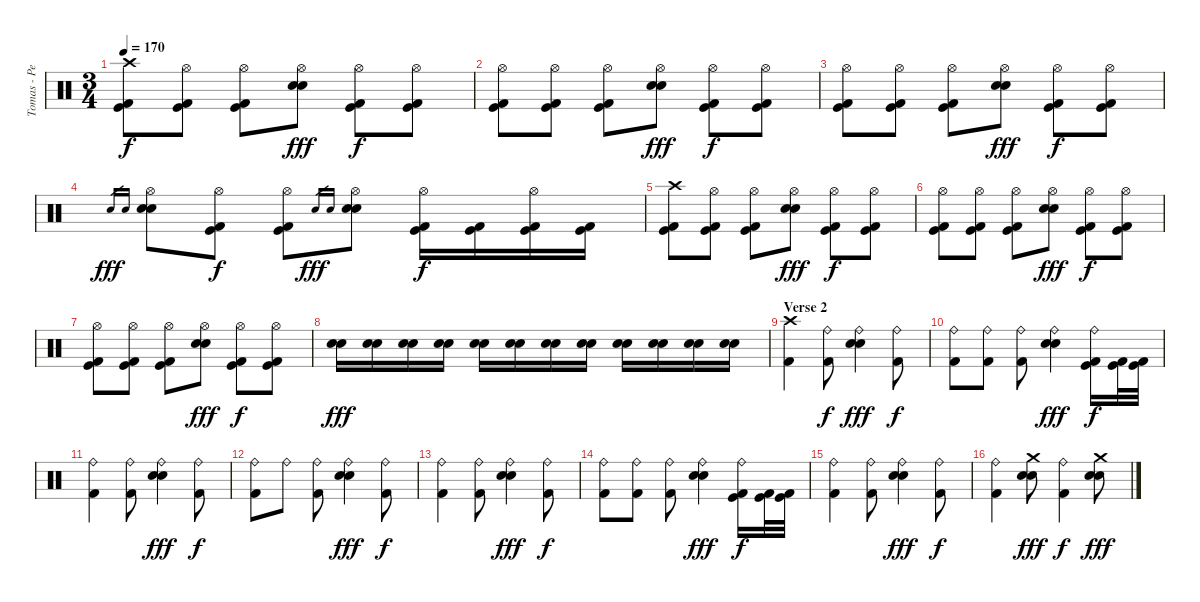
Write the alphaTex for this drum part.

\track ("Tomas - Percussions" "Tomas - Pe") {instrument percussion}
\staff {score}
\articulation defaults
\ts (3 4)
\tempo 170
\clef neutral
\ks c
("Crash high (hit)" "Kick (hit)" "Kick (hit) 2").8{dy f} ("Hi-Hat (open)" "Kick (hit)" "Kick (hit) 2").8 ("Hi-Hat (open)" "Kick (hit)" "Kick (hit) 2").8 ("Hi-Hat (open)" "Electric Snare (hit)" "Electric Snare (hit)").8{dy fff} ("Hi-Hat (open)" "Kick (hit)" "Kick (hit) 2").8{dy f} ("Hi-Hat (open)" "Kick (hit)" "Kick (hit) 2").8 |
("Hi-Hat (open)" "Kick (hit)" "Kick (hit) 2").8 ("Hi-Hat (open)" "Kick (hit)" "Kick (hit) 2").8 ("Hi-Hat (open)" "Kick (hit)" "Kick (hit) 2").8 ("Hi-Hat (open)" "Electric Snare (hit)" "Electric Snare (hit)").8{dy fff} ("Hi-Hat (open)" "Kick (hit)" "Kick (hit) 2").8{dy f} ("Hi-Hat (open)" "Kick (hit)" "Kick (hit) 2").8 |
("Hi-Hat (open)" "Kick (hit)" "Kick (hit) 2").8 ("Hi-Hat (open)" "Kick (hit)" "Kick (hit) 2").8 ("Hi-Hat (open)" "Kick (hit)" "Kick (hit) 2").8 ("Hi-Hat (open)" "Electric Snare (hit)" "Electric Snare (hit)").8{dy fff} ("Hi-Hat (open)" "Kick (hit)" "Kick (hit) 2").8{dy f} ("Hi-Hat (open)" "Kick (hit)" "Kick (hit) 2").8 |
"Electric Snare (hit)".16{gr dy fff} "Electric Snare (hit)".16{gr} ("Hi-Hat (open)" "Electric Snare (hit)" "Electric Snare (hit)").8 ("Hi-Hat (open)" "Kick (hit)" "Kick (hit) 2").8{dy f} ("Hi-Hat (open)" "Kick (hit)" "Kick (hit) 2").8 "Electric Snare (hit)".16{gr dy fff} "Electric Snare (hit)".16{gr} ("Hi-Hat (open)" "Electric Snare (hit)" "Electric Snare (hit)").8 ("Hi-Hat (open)" "Kick (hit)" "Kick (hit) 2").16{dy f} ("Kick (hit)" "Kick (hit) 2").16 ("Hi-Hat (open)" "Kick (hit)" "Kick (hit) 2").16 ("Kick (hit)" "Kick (hit) 2").16 |
("Crash high (hit)" "Kick (hit)" "Kick (hit) 2").8 ("Hi-Hat (open)" "Kick (hit)" "Kick (hit) 2").8 ("Hi-Hat (open)" "Kick (hit)" "Kick (hit) 2").8 ("Hi-Hat (open)" "Electric Snare (hit)" "Electric Snare (hit)").8{dy fff} ("Hi-Hat (open)" "Kick (hit)" "Kick (hit) 2").8{dy f} ("Hi-Hat (open)" "Kick (hit)" "Kick (hit) 2").8 |
("Hi-Hat (open)" "Kick (hit)" "Kick (hit) 2").8 ("Hi-Hat (open)" "Kick (hit)" "Kick (hit) 2").8 ("Hi-Hat (open)" "Kick (hit)" "Kick (hit) 2").8 ("Hi-Hat (open)" "Electric Snare (hit)" "Electric Snare (hit)").8{dy fff} ("Hi-Hat (open)" "Kick (hit)" "Kick (hit) 2").8{dy f} ("Hi-Hat (open)" "Kick (hit)" "Kick (hit) 2").8 |
("Hi-Hat (open)" "Kick (hit)" "Kick (hit) 2").8 ("Hi-Hat (open)" "Kick (hit)" "Kick (hit) 2").8 ("Hi-Hat (open)" "Kick (hit)" "Kick (hit) 2").8 ("Hi-Hat (open)" "Electric Snare (hit)" "Electric Snare (hit)").8{dy fff} ("Hi-Hat (open)" "Kick (hit)" "Kick (hit) 2").8{dy f} ("Hi-Hat (open)" "Kick (hit)" "Kick (hit) 2").8 |
("Electric Snare (hit)" "Electric Snare (hit)").16{dy fff} ("Electric Snare (hit)" "Electric Snare (hit)").16 ("Electric Snare (hit)" "Electric Snare (hit)").16 ("Electric Snare (hit)" "Electric Snare (hit)").16 ("Electric Snare (hit)" "Electric Snare (hit)").16 ("Electric Snare (hit)" "Electric Snare (hit)").16 ("Electric Snare (hit)" "Electric Snare (hit)").16 ("Electric Snare (hit)" "Electric Snare (hit)").16 ("Electric Snare (hit)" "Electric Snare (hit)").16 ("Electric Snare (hit)" "Electric Snare (hit)").16 ("Electric Snare (hit)" "Electric Snare (hit)").16 ("Electric Snare (hit)" "Electric Snare (hit)").16 |
\section ("" "Verse 2")
("Crash high (hit)" "Kick (hit) 2").4 ("Ride (bell)" "Kick (hit) 2").8{dy f} ("Ride (bell)" "Electric Snare (hit)" "Electric Snare (hit)").4{dy fff} ("Ride (bell)" "Kick (hit) 2").8{dy f} |
("Ride (bell)" "Kick (hit) 2").8 ("Ride (bell)" "Kick (hit) 2").8 ("Ride (bell)" "Kick (hit) 2").8 ("Ride (bell)" "Electric Snare (hit)" "Electric Snare (hit)").4{dy fff} ("Ride (bell)" "Kick (hit)" "Kick (hit) 2").16{dy f} ("Kick (hit)" "Kick (hit) 2").32 ("Kick (hit)" "Kick (hit) 2").32 |
("Ride (bell)" "Kick (hit) 2").4 ("Ride (bell)" "Kick (hit) 2").8 ("Ride (bell)" "Electric Snare (hit)" "Electric Snare (hit)").4{dy fff} ("Ride (bell)" "Kick (hit) 2").8{dy f} |
("Ride (bell)" "Kick (hit) 2").8 "Ride (bell)".8 ("Ride (bell)" "Kick (hit) 2").8 ("Ride (bell)" "Electric Snare (hit)" "Electric Snare (hit)").4{dy fff} ("Ride (bell)" "Kick (hit) 2").8{dy f} |
("Ride (bell)" "Kick (hit) 2").4 ("Ride (bell)" "Kick (hit) 2").8 ("Ride (bell)" "Electric Snare (hit)" "Electric Snare (hit)").4{dy fff} ("Ride (bell)" "Kick (hit) 2").8{dy f} |
("Ride (bell)" "Kick (hit) 2").8 ("Ride (bell)" "Kick (hit) 2").8 ("Ride (bell)" "Kick (hit) 2").8 ("Ride (bell)" "Electric Snare (hit)" "Electric Snare (hit)").4{dy fff} ("Ride (bell)" "Kick (hit)" "Kick (hit) 2").16{dy f} ("Kick (hit)" "Kick (hit) 2").32 ("Kick (hit)" "Kick (hit) 2").32 |
("Ride (bell)" "Kick (hit) 2").4 ("Ride (bell)" "Kick (hit) 2").8 ("Ride (bell)" "Electric Snare (hit)" "Electric Snare (hit)").4{dy fff} ("Ride (bell)" "Kick (hit) 2").8{dy f} |
("Ride (bell)" "Kick (hit) 2").4 ("Crash medium (hit)" "Electric Snare (hit)" "Electric Snare (hit)").8{dy fff} ("Ride (bell)" "Kick (hit) 2").4{dy f} ("Crash medium (hit)" "Electric Snare (hit)" "Electric Snare (hit)").8{dy fff}
